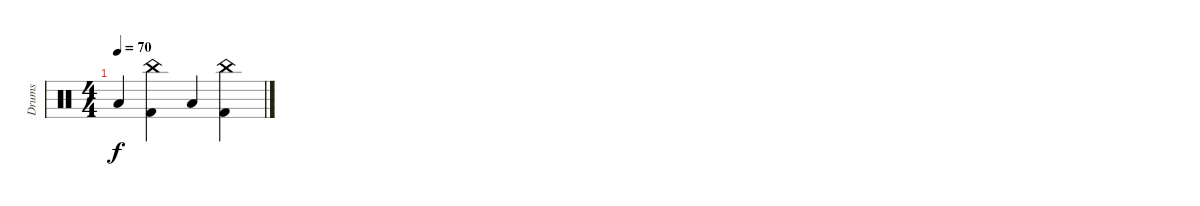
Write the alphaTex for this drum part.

\track ("Drums" "Drums") {instrument percussion}
\staff {score}
\articulation defaults
\ts (4 4)
\tempo 70
\clef neutral
\ks c "Low Floor Tom (hit)".4{dy f volume 0}
("China (hit)" "Kick (hit) 2").4 "Low Floor Tom (hit)".4 ("China (hit)" "Kick (hit) 2").4
